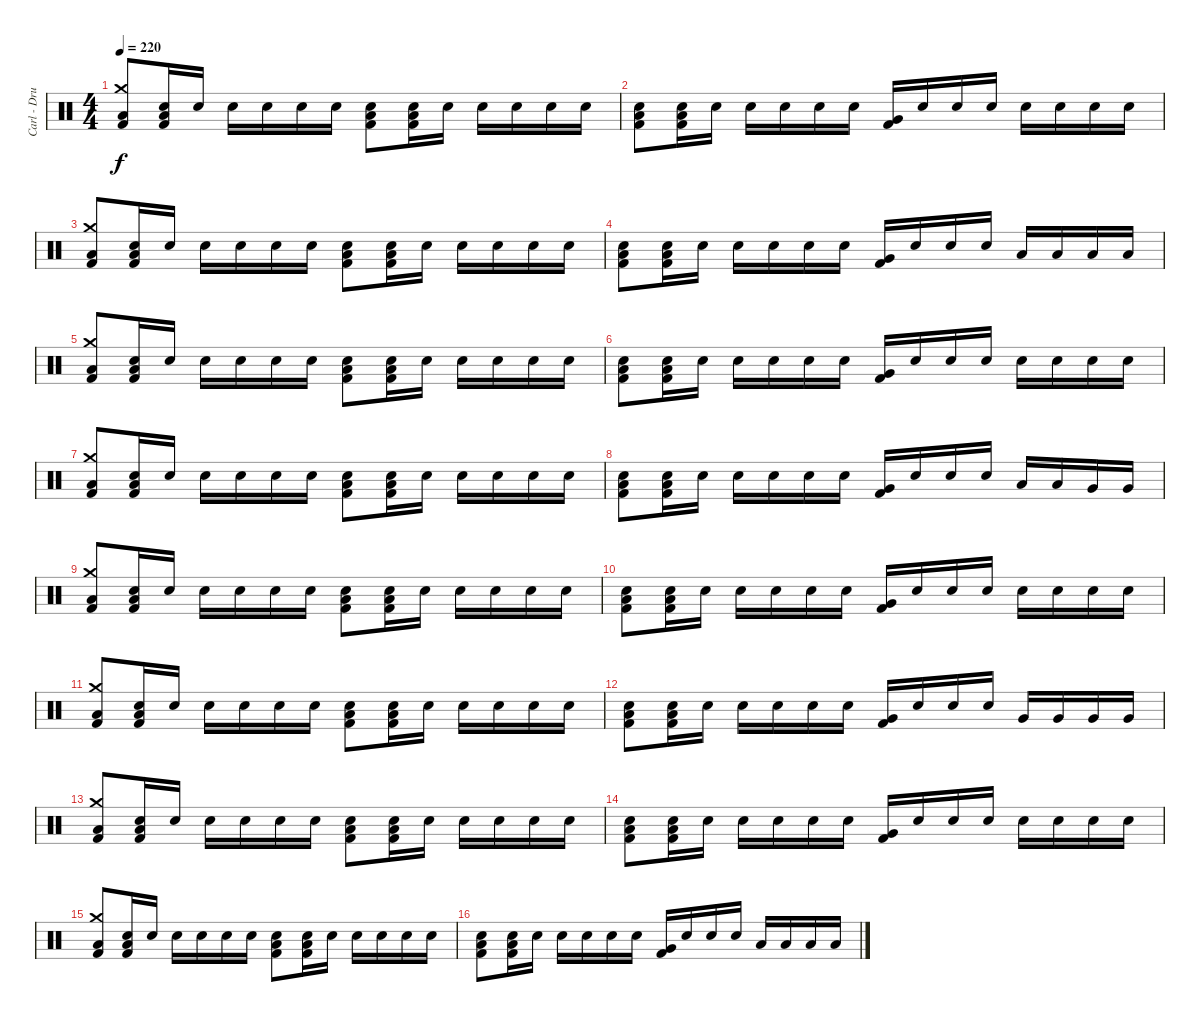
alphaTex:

\track ("Carl - Drums" "Carl - Dru") {instrument percussion}
\staff {score}
\articulation defaults
\ts (4 4)
\tempo 220
\clef neutral
\ks c
("Low Tom (hit)" "Crash medium (hit)" "Kick (hit) 2").8{dy f} ("Low Tom (hit)" "Electric Snare (hit)" "Kick (hit) 2").16 "Electric Snare (hit)".16 "Electric Snare (hit)".16 "Electric Snare (hit)".16 "Electric Snare (hit)".16 "Electric Snare (hit)".16 ("Low Tom (hit)" "Electric Snare (hit)" "Kick (hit) 2").8 ("Low Tom (hit)" "Electric Snare (hit)" "Kick (hit) 2").16 "Electric Snare (hit)".16 "Electric Snare (hit)".16 "Electric Snare (hit)".16 "Electric Snare (hit)".16 "Electric Snare (hit)".16 |
("Low Tom (hit)" "Electric Snare (hit)" "Kick (hit) 2").8 ("Low Tom (hit)" "Electric Snare (hit)" "Kick (hit) 2").16 "Electric Snare (hit)".16 "Electric Snare (hit)".16 "Electric Snare (hit)".16 "Electric Snare (hit)".16 "Electric Snare (hit)".16 ("Very Low Tom (hit)" "Kick (hit) 2").16 "Electric Snare (hit)".16 "Electric Snare (hit)".16 "Electric Snare (hit)".16 "Electric Snare (hit)".16 "Electric Snare (hit)".16 "Electric Snare (hit)".16 "Electric Snare (hit)".16 |
("Low Tom (hit)" "Crash medium (hit)" "Kick (hit) 2").8 ("Low Tom (hit)" "Electric Snare (hit)" "Kick (hit) 2").16 "Electric Snare (hit)".16 "Electric Snare (hit)".16 "Electric Snare (hit)".16 "Electric Snare (hit)".16 "Electric Snare (hit)".16 ("Low Tom (hit)" "Electric Snare (hit)" "Kick (hit) 2").8 ("Low Tom (hit)" "Electric Snare (hit)" "Kick (hit) 2").16 "Electric Snare (hit)".16 "Electric Snare (hit)".16 "Electric Snare (hit)".16 "Electric Snare (hit)".16 "Electric Snare (hit)".16 |
("Low Tom (hit)" "Electric Snare (hit)" "Kick (hit) 2").8 ("Low Tom (hit)" "Electric Snare (hit)" "Kick (hit) 2").16 "Electric Snare (hit)".16 "Electric Snare (hit)".16 "Electric Snare (hit)".16 "Electric Snare (hit)".16 "Electric Snare (hit)".16 ("Very Low Tom (hit)" "Kick (hit) 2").16 "Electric Snare (hit)".16 "Electric Snare (hit)".16 "Electric Snare (hit)".16 "Low Floor Tom (hit)".16 "Low Floor Tom (hit)".16 "Low Floor Tom (hit)".16 "Low Floor Tom (hit)".16 |
("Low Tom (hit)" "Crash medium (hit)" "Kick (hit) 2").8 ("Low Tom (hit)" "Electric Snare (hit)" "Kick (hit) 2").16 "Electric Snare (hit)".16 "Electric Snare (hit)".16 "Electric Snare (hit)".16 "Electric Snare (hit)".16 "Electric Snare (hit)".16 ("Low Tom (hit)" "Electric Snare (hit)" "Kick (hit) 2").8 ("Low Tom (hit)" "Electric Snare (hit)" "Kick (hit) 2").16 "Electric Snare (hit)".16 "Electric Snare (hit)".16 "Electric Snare (hit)".16 "Electric Snare (hit)".16 "Electric Snare (hit)".16 |
("Low Tom (hit)" "Electric Snare (hit)" "Kick (hit) 2").8 ("Low Tom (hit)" "Electric Snare (hit)" "Kick (hit) 2").16 "Electric Snare (hit)".16 "Electric Snare (hit)".16 "Electric Snare (hit)".16 "Electric Snare (hit)".16 "Electric Snare (hit)".16 ("Very Low Tom (hit)" "Kick (hit) 2").16 "Electric Snare (hit)".16 "Electric Snare (hit)".16 "Electric Snare (hit)".16 "Electric Snare (hit)".16 "Electric Snare (hit)".16 "Electric Snare (hit)".16 "Electric Snare (hit)".16 |
("Low Tom (hit)" "Crash medium (hit)" "Kick (hit) 2").8 ("Low Tom (hit)" "Electric Snare (hit)" "Kick (hit) 2").16 "Electric Snare (hit)".16 "Electric Snare (hit)".16 "Electric Snare (hit)".16 "Electric Snare (hit)".16 "Electric Snare (hit)".16 ("Low Tom (hit)" "Electric Snare (hit)" "Kick (hit) 2").8 ("Low Tom (hit)" "Electric Snare (hit)" "Kick (hit) 2").16 "Electric Snare (hit)".16 "Electric Snare (hit)".16 "Electric Snare (hit)".16 "Electric Snare (hit)".16 "Electric Snare (hit)".16 |
("Low Tom (hit)" "Electric Snare (hit)" "Kick (hit) 2").8 ("Low Tom (hit)" "Electric Snare (hit)" "Kick (hit) 2").16 "Electric Snare (hit)".16 "Electric Snare (hit)".16 "Electric Snare (hit)".16 "Electric Snare (hit)".16 "Electric Snare (hit)".16 ("Very Low Tom (hit)" "Kick (hit) 2").16 "Electric Snare (hit)".16 "Electric Snare (hit)".16 "Electric Snare (hit)".16 "Low Tom (hit)".16 "Low Tom (hit)".16 "Very Low Tom (hit)".16 "Very Low Tom (hit)".16 |
("Low Tom (hit)" "Crash medium (hit)" "Kick (hit) 2").8 ("Low Tom (hit)" "Electric Snare (hit)" "Kick (hit) 2").16 "Electric Snare (hit)".16 "Electric Snare (hit)".16 "Electric Snare (hit)".16 "Electric Snare (hit)".16 "Electric Snare (hit)".16 ("Low Tom (hit)" "Electric Snare (hit)" "Kick (hit) 2").8 ("Low Tom (hit)" "Electric Snare (hit)" "Kick (hit) 2").16 "Electric Snare (hit)".16 "Electric Snare (hit)".16 "Electric Snare (hit)".16 "Electric Snare (hit)".16 "Electric Snare (hit)".16 |
("Low Tom (hit)" "Electric Snare (hit)" "Kick (hit) 2").8 ("Low Tom (hit)" "Electric Snare (hit)" "Kick (hit) 2").16 "Electric Snare (hit)".16 "Electric Snare (hit)".16 "Electric Snare (hit)".16 "Electric Snare (hit)".16 "Electric Snare (hit)".16 ("Very Low Tom (hit)" "Kick (hit) 2").16 "Electric Snare (hit)".16 "Electric Snare (hit)".16 "Electric Snare (hit)".16 "Electric Snare (hit)".16 "Electric Snare (hit)".16 "Electric Snare (hit)".16 "Electric Snare (hit)".16 |
("Low Tom (hit)" "Crash medium (hit)" "Kick (hit) 2").8 ("Low Tom (hit)" "Electric Snare (hit)" "Kick (hit) 2").16 "Electric Snare (hit)".16 "Electric Snare (hit)".16 "Electric Snare (hit)".16 "Electric Snare (hit)".16 "Electric Snare (hit)".16 ("Low Tom (hit)" "Electric Snare (hit)" "Kick (hit) 2").8 ("Low Tom (hit)" "Electric Snare (hit)" "Kick (hit) 2").16 "Electric Snare (hit)".16 "Electric Snare (hit)".16 "Electric Snare (hit)".16 "Electric Snare (hit)".16 "Electric Snare (hit)".16 |
("Low Tom (hit)" "Electric Snare (hit)" "Kick (hit) 2").8 ("Low Tom (hit)" "Electric Snare (hit)" "Kick (hit) 2").16 "Electric Snare (hit)".16 "Electric Snare (hit)".16 "Electric Snare (hit)".16 "Electric Snare (hit)".16 "Electric Snare (hit)".16 ("Very Low Tom (hit)" "Kick (hit) 2").16 "Electric Snare (hit)".16 "Electric Snare (hit)".16 "Electric Snare (hit)".16 "Very Low Tom (hit)".16 "Very Low Tom (hit)".16 "Very Low Tom (hit)".16 "Very Low Tom (hit)".16 |
("Low Tom (hit)" "Crash medium (hit)" "Kick (hit) 2").8 ("Low Tom (hit)" "Electric Snare (hit)" "Kick (hit) 2").16 "Electric Snare (hit)".16 "Electric Snare (hit)".16 "Electric Snare (hit)".16 "Electric Snare (hit)".16 "Electric Snare (hit)".16 ("Low Tom (hit)" "Electric Snare (hit)" "Kick (hit) 2").8 ("Low Tom (hit)" "Electric Snare (hit)" "Kick (hit) 2").16 "Electric Snare (hit)".16 "Electric Snare (hit)".16 "Electric Snare (hit)".16 "Electric Snare (hit)".16 "Electric Snare (hit)".16 |
("Low Tom (hit)" "Electric Snare (hit)" "Kick (hit) 2").8 ("Low Tom (hit)" "Electric Snare (hit)" "Kick (hit) 2").16 "Electric Snare (hit)".16 "Electric Snare (hit)".16 "Electric Snare (hit)".16 "Electric Snare (hit)".16 "Electric Snare (hit)".16 ("Very Low Tom (hit)" "Kick (hit) 2").16 "Electric Snare (hit)".16 "Electric Snare (hit)".16 "Electric Snare (hit)".16 "Electric Snare (hit)".16 "Electric Snare (hit)".16 "Electric Snare (hit)".16 "Electric Snare (hit)".16 |
("Low Tom (hit)" "Crash medium (hit)" "Kick (hit) 2").8 ("Low Tom (hit)" "Electric Snare (hit)" "Kick (hit) 2").16 "Electric Snare (hit)".16 "Electric Snare (hit)".16 "Electric Snare (hit)".16 "Electric Snare (hit)".16 "Electric Snare (hit)".16 ("Low Tom (hit)" "Electric Snare (hit)" "Kick (hit) 2").8 ("Low Tom (hit)" "Electric Snare (hit)" "Kick (hit) 2").16 "Electric Snare (hit)".16 "Electric Snare (hit)".16 "Electric Snare (hit)".16 "Electric Snare (hit)".16 "Electric Snare (hit)".16 |
("Low Tom (hit)" "Electric Snare (hit)" "Kick (hit) 2").8 ("Low Tom (hit)" "Electric Snare (hit)" "Kick (hit) 2").16 "Electric Snare (hit)".16 "Electric Snare (hit)".16 "Electric Snare (hit)".16 "Electric Snare (hit)".16 "Electric Snare (hit)".16 ("Very Low Tom (hit)" "Kick (hit) 2").16 "Electric Snare (hit)".16 "Electric Snare (hit)".16 "Electric Snare (hit)".16 "Low Floor Tom (hit)".16 "Low Floor Tom (hit)".16 "Low Floor Tom (hit)".16 "Low Floor Tom (hit)".16
